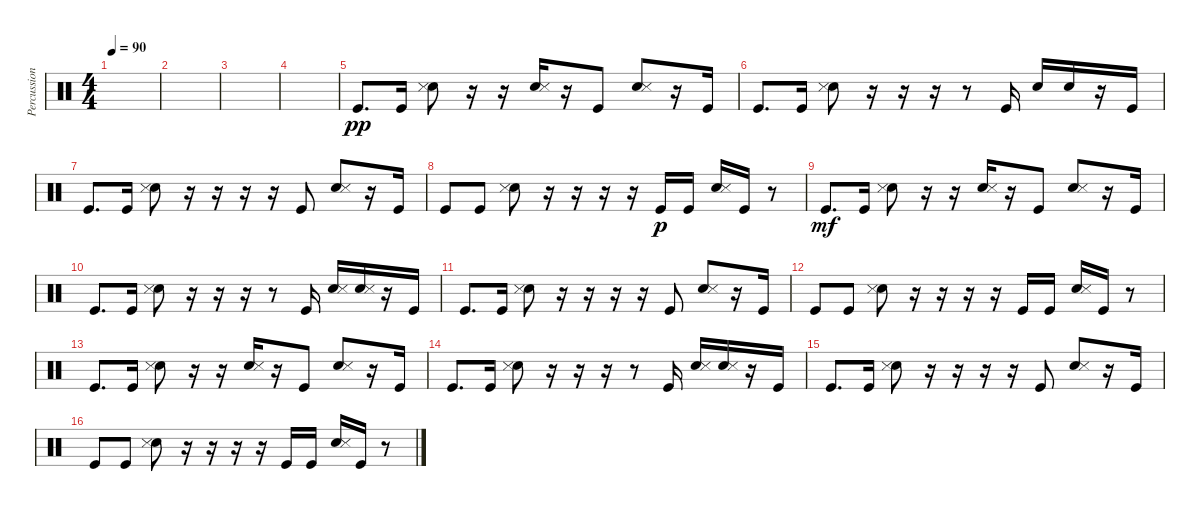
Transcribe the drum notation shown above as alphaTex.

\track ("Percussion" "Percussion") {instrument percussion}
\staff {score}
\articulation defaults
\ts (4 4)
\tempo 90
\clef neutral
\ks c
|
|
|
|
"Kick (hit)".8{d dy pp} "Kick (hit)".16 ("Hand Clap (hit)" "Snare (side stick) 3").8 r.16 r.16 ("Hand Clap (hit)" "Snare (side stick) 3").16 r.16 "Kick (hit)".8 ("Hand Clap (hit)" "Snare (side stick) 3").8 r.16 "Kick (hit)".16 |
"Kick (hit)".8{d} "Kick (hit)".16 ("Hand Clap (hit)" "Snare (side stick) 3").8 r.16 r.16 r.16 r.8 "Kick (hit)".16 "Hand Clap (hit)".16 "Hand Clap (hit)".16 r.16 "Kick (hit)".16 |
"Kick (hit)".8{d} "Kick (hit)".16 ("Hand Clap (hit)" "Snare (side stick) 3").8 r.16 r.16 r.16 r.16 "Kick (hit)".8 ("Hand Clap (hit)" "Snare (side stick) 3").8 r.16 "Kick (hit)".16 |
"Kick (hit)".8 "Kick (hit)".8 ("Hand Clap (hit)" "Snare (side stick) 3").8 r.16 r.16 r.16 r.16 "Kick (hit)".16{dy p} "Kick (hit)".16 ("Hand Clap (hit)" "Snare (side stick) 3").16 "Kick (hit)".16 r.8 |
"Kick (hit)".8{d dy mf} "Kick (hit)".16 ("Hand Clap (hit)" "Snare (side stick) 3").8 r.16 r.16 ("Hand Clap (hit)" "Snare (side stick) 3").16 r.16 "Kick (hit)".8 ("Hand Clap (hit)" "Snare (side stick) 3").8 r.16 "Kick (hit)".16 |
"Kick (hit)".8{d} "Kick (hit)".16 ("Hand Clap (hit)" "Snare (side stick) 3").8 r.16 r.16 r.16 r.8 "Kick (hit)".16 ("Hand Clap (hit)" "Snare (side stick) 3").16 ("Hand Clap (hit)" "Snare (side stick) 3").16 r.16 "Kick (hit)".16 |
"Kick (hit)".8{d} "Kick (hit)".16 ("Hand Clap (hit)" "Snare (side stick) 3").8 r.16 r.16 r.16 r.16 "Kick (hit)".8 ("Hand Clap (hit)" "Snare (side stick) 3").8 r.16 "Kick (hit)".16 |
"Kick (hit)".8 "Kick (hit)".8 ("Hand Clap (hit)" "Snare (side stick) 3").8 r.16 r.16 r.16 r.16 "Kick (hit)".16 "Kick (hit)".16 ("Hand Clap (hit)" "Snare (side stick) 3").16 "Kick (hit)".16 r.8 |
"Kick (hit)".8{d} "Kick (hit)".16 ("Hand Clap (hit)" "Snare (side stick) 3").8 r.16 r.16 ("Hand Clap (hit)" "Snare (side stick) 3").16 r.16 "Kick (hit)".8 ("Hand Clap (hit)" "Snare (side stick) 3").8 r.16 "Kick (hit)".16 |
"Kick (hit)".8{d} "Kick (hit)".16 ("Hand Clap (hit)" "Snare (side stick) 3").8 r.16 r.16 r.16 r.8 "Kick (hit)".16 ("Hand Clap (hit)" "Snare (side stick) 3").16 ("Hand Clap (hit)" "Snare (side stick) 3").16 r.16 "Kick (hit)".16 |
"Kick (hit)".8{d} "Kick (hit)".16 ("Hand Clap (hit)" "Snare (side stick) 3").8 r.16 r.16 r.16 r.16 "Kick (hit)".8 ("Hand Clap (hit)" "Snare (side stick) 3").8 r.16 "Kick (hit)".16 |
"Kick (hit)".8 "Kick (hit)".8 ("Hand Clap (hit)" "Snare (side stick) 3").8 r.16 r.16 r.16 r.16 "Kick (hit)".16 "Kick (hit)".16 ("Hand Clap (hit)" "Snare (side stick) 3").16 "Kick (hit)".16 r.8
